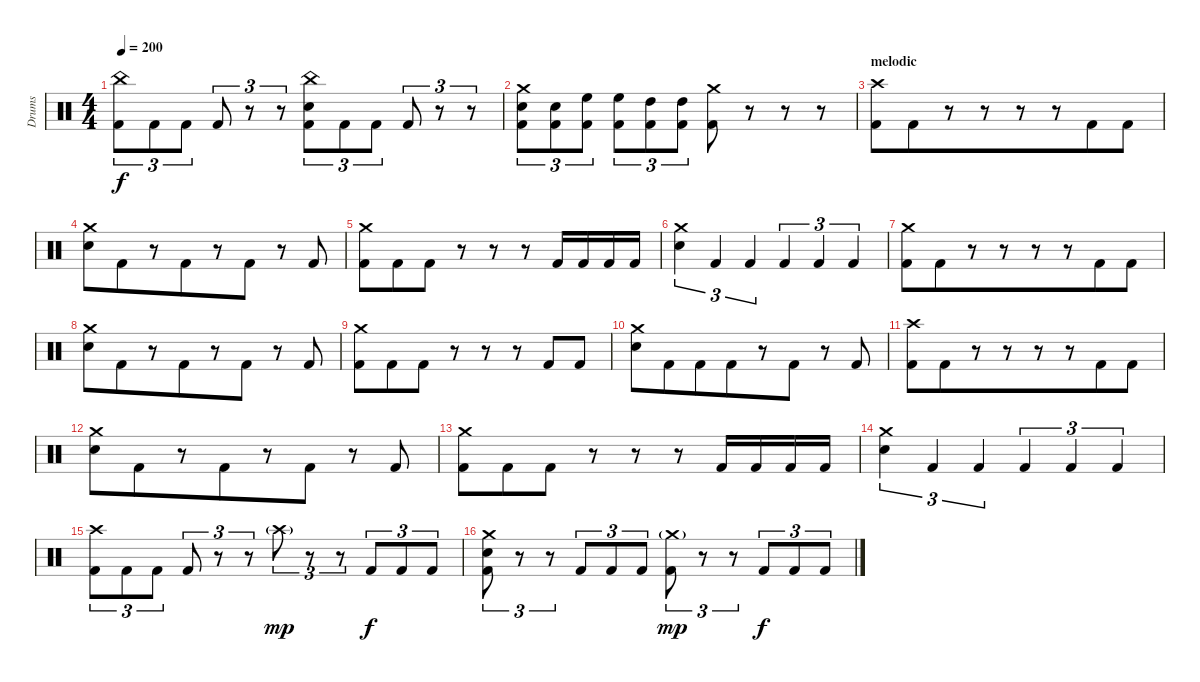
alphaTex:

\track ("Drums" "Drums") {instrument percussion}
\staff {score}
\articulation defaults
\ts (4 4)
\tempo 200
\clef neutral
\ks c
("China (hit)" "Kick (hit) 2").8{tu (3 2) dy f} "Kick (hit) 2".8{tu (3 2)} "Kick (hit) 2".8{tu (3 2)} "Kick (hit) 2".8{tu (3 2)} r.8{tu (3 2)} r.8{tu (3 2)} ("China (hit)" "Electric Snare (hit)" "Kick (hit) 2").8{tu (3 2)} "Kick (hit) 2".8{tu (3 2)} "Kick (hit) 2".8{tu (3 2)} "Kick (hit) 2".8{tu (3 2)} r.8{tu (3 2)} r.8{tu (3 2)} |
("Crash medium (hit)" "Electric Snare (hit)" "Kick (hit) 2").8{tu (3 2)} ("Electric Snare (hit)" "Kick (hit) 2").8{tu (3 2)} ("High Floor Tom (hit)" "Kick (hit) 2").8{tu (3 2)} ("High Floor Tom (hit)" "Kick (hit) 2").8{tu (3 2)} ("High Tom (hit)" "Kick (hit) 2").8{tu (3 2)} ("High Tom (hit)" "Kick (hit) 2").8{tu (3 2)} ("Crash medium (hit)" "Kick (hit) 2").8 r.8{volume 0} r.8 r.8 |
\section ("" "melodic")
("Crash high (hit)" "Kick (hit) 2").8{volume 16} "Kick (hit) 2".8{beam merge} r.8 r.8 r.8{beam merge} r.8 "Kick (hit) 2".8{beam merge} "Kick (hit) 2".8 |
("Crash medium (hit)" "Electric Snare (hit)").8 "Kick (hit) 2".8{beam merge} r.8 "Kick (hit) 2".8{beam merge} r.8 "Kick (hit) 2".8 r.8{beam merge} "Kick (hit) 2".8 |
("Crash medium (hit)" "Kick (hit) 2").8 "Kick (hit) 2".8{beam merge} "Kick (hit) 2".8 r.8 r.8{beam merge} r.8 "Kick (hit) 2".16{beam merge} "Kick (hit) 2".16{beam merge} "Kick (hit) 2".16 "Kick (hit) 2".16 |
("Crash medium (hit)" "Electric Snare (hit)").4{tu (3 2)} "Kick (hit) 2".4{tu (3 2) beam merge} "Kick (hit) 2".4{tu (3 2)} "Kick (hit) 2".4{tu (3 2) beam merge} "Kick (hit) 2".4{tu (3 2)} "Kick (hit) 2".4{tu (3 2)} |
("Crash medium (hit)" "Kick (hit) 2").8 "Kick (hit) 2".8{beam merge} r.8 r.8 r.8{beam merge} r.8 "Kick (hit) 2".8{beam merge} "Kick (hit) 2".8 |
("Crash medium (hit)" "Electric Snare (hit)").8 "Kick (hit) 2".8{beam merge} r.8 "Kick (hit) 2".8{beam merge} r.8 "Kick (hit) 2".8 r.8{beam merge} "Kick (hit) 2".8 |
("Crash medium (hit)" "Kick (hit) 2").8 "Kick (hit) 2".8{beam merge} "Kick (hit) 2".8 r.8 r.8{beam merge} r.8 "Kick (hit) 2".8{beam merge} "Kick (hit) 2".8 |
("Crash medium (hit)" "Electric Snare (hit)").8 "Kick (hit) 2".8{beam merge} "Kick (hit) 2".8 "Kick (hit) 2".8{beam merge} r.8 "Kick (hit) 2".8 r.8{beam merge} "Kick (hit) 2".8 |
("Crash high (hit)" "Kick (hit) 2").8 "Kick (hit) 2".8{beam merge} r.8 r.8 r.8{beam merge} r.8 "Kick (hit) 2".8{beam merge} "Kick (hit) 2".8 |
("Crash medium (hit)" "Electric Snare (hit)").8 "Kick (hit) 2".8{beam merge} r.8 "Kick (hit) 2".8{beam merge} r.8 "Kick (hit) 2".8 r.8{beam merge} "Kick (hit) 2".8 |
("Crash medium (hit)" "Kick (hit) 2").8 "Kick (hit) 2".8{beam merge} "Kick (hit) 2".8 r.8 r.8{beam merge} r.8 "Kick (hit) 2".16{beam merge} "Kick (hit) 2".16{beam merge} "Kick (hit) 2".16 "Kick (hit) 2".16 |
("Crash medium (hit)" "Electric Snare (hit)").4{tu (3 2)} "Kick (hit) 2".4{tu (3 2) beam merge} "Kick (hit) 2".4{tu (3 2)} "Kick (hit) 2".4{tu (3 2) beam merge} "Kick (hit) 2".4{tu (3 2)} "Kick (hit) 2".4{tu (3 2)} |
("Crash high (hit)" "Kick (hit) 2").8{tu (3 2)} "Kick (hit) 2".8{tu (3 2) beam merge} "Kick (hit) 2".8{tu (3 2)} "Kick (hit) 2".8{tu (3 2)} r.8{tu (3 2) beam merge} r.8{tu (3 2)} "Crash high (hit)"{g}.8{tu (3 2) dy mp} r.8{tu (3 2) beam merge} r.8{tu (3 2)} "Kick (hit) 2".8{tu (3 2) dy f} "Kick (hit) 2".8{tu (3 2) beam merge} "Kick (hit) 2".8{tu (3 2)} |
("Crash medium (hit)" "Electric Snare (hit)" "Kick (hit) 2").8{tu (3 2)} r.8{tu (3 2) beam merge} r.8{tu (3 2)} "Kick (hit) 2".8{tu (3 2)} "Kick (hit) 2".8{tu (3 2) beam merge} "Kick (hit) 2".8{tu (3 2)} ("Crash medium (hit)"{g} "Kick (hit) 2").8{tu (3 2) dy mp} r.8{tu (3 2) beam merge} r.8{tu (3 2)} "Kick (hit) 2".8{tu (3 2) dy f} "Kick (hit) 2".8{tu (3 2) beam merge} "Kick (hit) 2".8{tu (3 2)}
